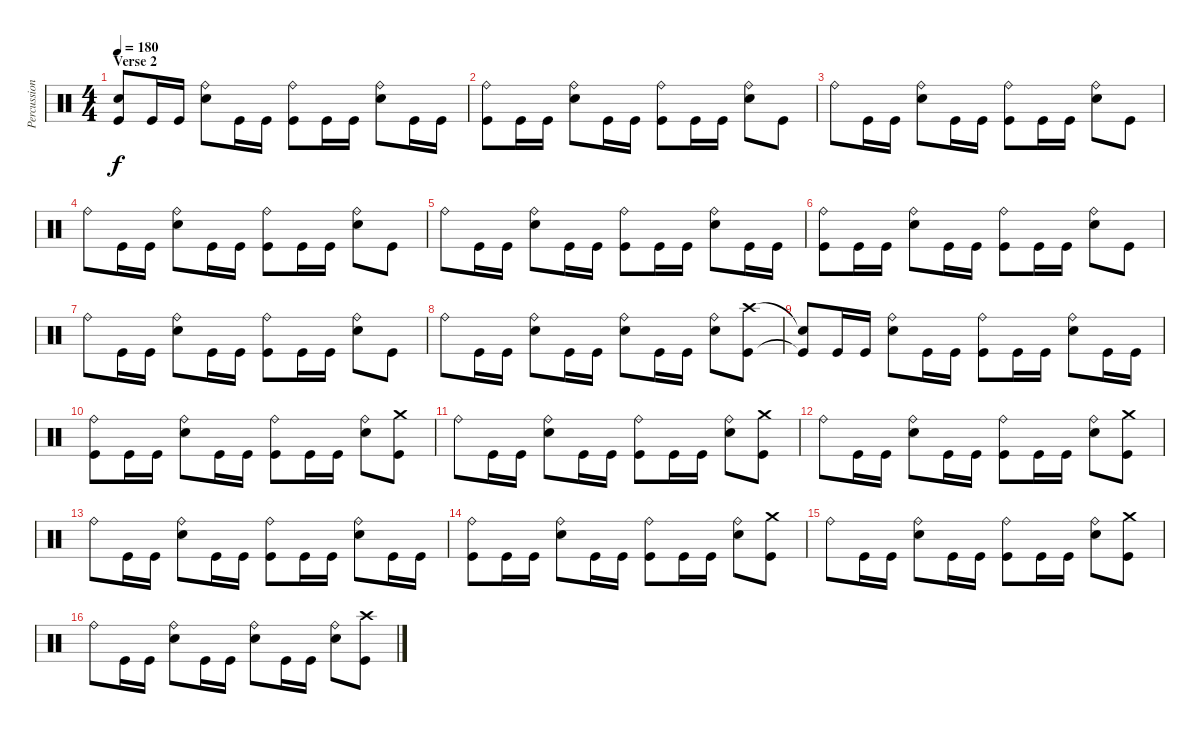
\track ("Percussion" "Percussion") {instrument percussion}
\staff {score}
\articulation defaults
\ts (4 4)
\section ("" "Verse 2")
\tempo 180
\clef neutral
\ks c
("Snare (hit)"{t} "Kick (hit)"{t}).8{dy f} "Kick (hit)".16 "Kick (hit)".16 ("Ride (bell)" "Snare (hit) 2").8 "Kick (hit)".16 "Kick (hit)".16 ("Ride (bell)" "Kick (hit)").8 "Kick (hit)".16 "Kick (hit)".16 ("Ride (bell)" "Snare (hit) 2").8 "Kick (hit)".16 "Kick (hit)".16 |
("Ride (bell)" "Kick (hit)").8 "Kick (hit)".16 "Kick (hit)".16 ("Ride (bell)" "Snare (hit) 2").8 "Kick (hit)".16 "Kick (hit)".16 ("Ride (bell)" "Kick (hit)").8 "Kick (hit)".16 "Kick (hit)".16 ("Ride (bell)" "Snare (hit) 2").8 "Kick (hit)".8 |
"Ride (bell)".8 "Kick (hit)".16 "Kick (hit)".16 ("Ride (bell)" "Snare (hit) 2").8 "Kick (hit)".16 "Kick (hit)".16 ("Ride (bell)" "Kick (hit)").8 "Kick (hit)".16 "Kick (hit)".16 ("Ride (bell)" "Snare (hit) 2").8 "Kick (hit)".8 |
"Ride (bell)".8 "Kick (hit)".16 "Kick (hit)".16 ("Ride (bell)" "Snare (hit) 2").8 "Kick (hit)".16 "Kick (hit)".16 ("Ride (bell)" "Kick (hit)").8 "Kick (hit)".16 "Kick (hit)".16 ("Ride (bell)" "Snare (hit) 2").8 "Kick (hit)".8 |
"Ride (bell)".8 "Kick (hit)".16 "Kick (hit)".16 ("Ride (bell)" "Snare (hit) 2").8 "Kick (hit)".16 "Kick (hit)".16 ("Ride (bell)" "Kick (hit)").8 "Kick (hit)".16 "Kick (hit)".16 ("Ride (bell)" "Snare (hit) 2").8 "Kick (hit)".16 "Kick (hit)".16 |
("Ride (bell)" "Kick (hit)").8 "Kick (hit)".16 "Kick (hit)".16 ("Ride (bell)" "Snare (hit) 2").8 "Kick (hit)".16 "Kick (hit)".16 ("Ride (bell)" "Kick (hit)").8 "Kick (hit)".16 "Kick (hit)".16 ("Ride (bell)" "Snare (hit) 2").8 "Kick (hit)".8 |
"Ride (bell)".8 "Kick (hit)".16 "Kick (hit)".16 ("Ride (bell)" "Snare (hit) 2").8 "Kick (hit)".16 "Kick (hit)".16 ("Ride (bell)" "Kick (hit)").8 "Kick (hit)".16 "Kick (hit)".16 ("Ride (bell)" "Snare (hit) 2").8 "Kick (hit)".8 |
"Ride (bell)".8 "Kick (hit)".16 "Kick (hit)".16 ("Ride (bell)" "Snare (hit) 2").8 "Kick (hit)".16 "Kick (hit)".16 ("Ride (bell)" "Snare (hit) 2").8 "Kick (hit)".16 "Kick (hit)".16 ("Ride (bell)" "Snare (hit) 2").8 ("Crash high (hit)" "Kick (hit)").8 |
("Snare (hit)"{t} "Kick (hit)"{t}).8 "Kick (hit)".16 "Kick (hit)".16 ("Ride (bell)" "Snare (hit) 2").8 "Kick (hit)".16 "Kick (hit)".16 ("Ride (bell)" "Kick (hit)").8 "Kick (hit)".16 "Kick (hit)".16 ("Ride (bell)" "Snare (hit) 2").8 "Kick (hit)".16 "Kick (hit)".16 |
("Ride (bell)" "Kick (hit)").8 "Kick (hit)".16 "Kick (hit)".16 ("Ride (bell)" "Snare (hit) 2").8 "Kick (hit)".16 "Kick (hit)".16 ("Ride (bell)" "Kick (hit)").8 "Kick (hit)".16 "Kick (hit)".16 ("Ride (bell)" "Snare (hit) 2").8 ("Crash medium (hit)" "Kick (hit)").8 |
"Ride (bell)".8 "Kick (hit)".16 "Kick (hit)".16 ("Ride (bell)" "Snare (hit) 2").8 "Kick (hit)".16 "Kick (hit)".16 ("Ride (bell)" "Kick (hit)").8 "Kick (hit)".16 "Kick (hit)".16 ("Ride (bell)" "Snare (hit) 2").8 ("Crash medium (hit)" "Kick (hit)").8 |
"Ride (bell)".8 "Kick (hit)".16 "Kick (hit)".16 ("Ride (bell)" "Snare (hit) 2").8 "Kick (hit)".16 "Kick (hit)".16 ("Ride (bell)" "Kick (hit)").8 "Kick (hit)".16 "Kick (hit)".16 ("Ride (bell)" "Snare (hit) 2").8 ("Crash medium (hit)" "Kick (hit)").8 |
"Ride (bell)".8 "Kick (hit)".16 "Kick (hit)".16 ("Ride (bell)" "Snare (hit) 2").8 "Kick (hit)".16 "Kick (hit)".16 ("Ride (bell)" "Kick (hit)").8 "Kick (hit)".16 "Kick (hit)".16 ("Ride (bell)" "Snare (hit) 2").8 "Kick (hit)".16 "Kick (hit)".16 |
("Ride (bell)" "Kick (hit)").8 "Kick (hit)".16 "Kick (hit)".16 ("Ride (bell)" "Snare (hit) 2").8 "Kick (hit)".16 "Kick (hit)".16 ("Ride (bell)" "Kick (hit)").8 "Kick (hit)".16 "Kick (hit)".16 ("Ride (bell)" "Snare (hit) 2").8 ("Crash medium (hit)" "Kick (hit)").8 |
"Ride (bell)".8 "Kick (hit)".16 "Kick (hit)".16 ("Ride (bell)" "Snare (hit) 2").8 "Kick (hit)".16 "Kick (hit)".16 ("Ride (bell)" "Kick (hit)").8 "Kick (hit)".16 "Kick (hit)".16 ("Ride (bell)" "Snare (hit) 2").8 ("Crash medium (hit)" "Kick (hit)").8 |
"Ride (bell)".8 "Kick (hit)".16 "Kick (hit)".16 ("Ride (bell)" "Snare (hit) 2").8 "Kick (hit)".16 "Kick (hit)".16 ("Ride (bell)" "Snare (hit) 2").8 "Kick (hit)".16 "Kick (hit)".16 ("Ride (bell)" "Snare (hit) 2").8 ("Crash high (hit)" "Kick (hit)").8
